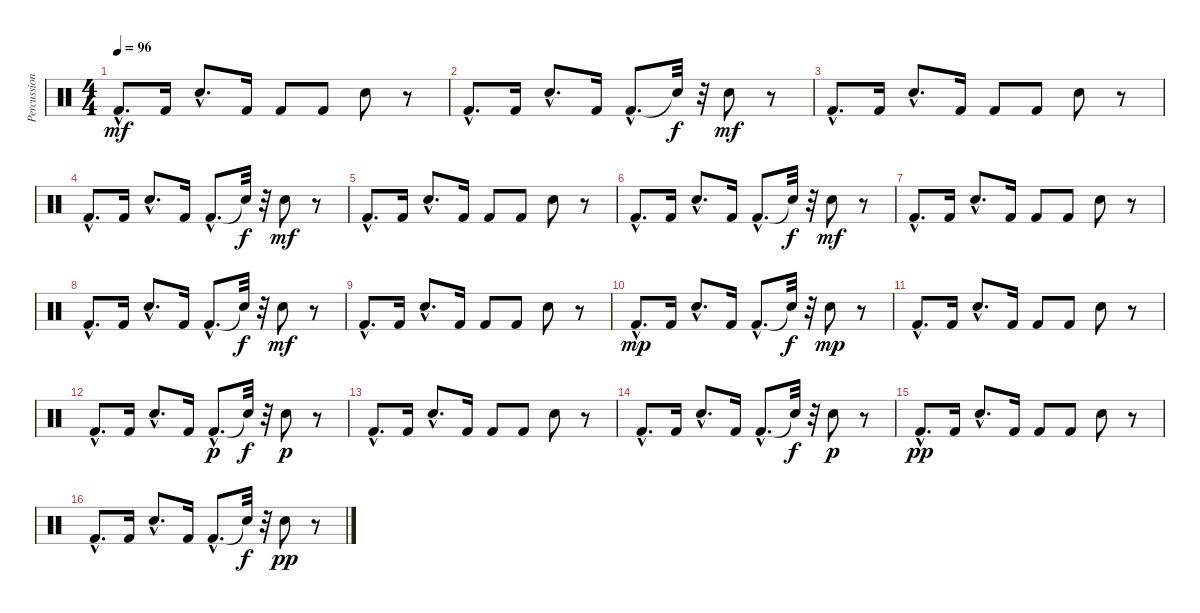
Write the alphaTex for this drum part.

\track ("Percussion" "Percussion") {instrument percussion}
\staff {score}
\articulation defaults
\ts (4 4)
\tempo 96
\clef neutral
\ks c "Kick (hit) 2"{hac}.8{d dy mf} "Kick (hit) 2".16 "Electric Snare (hit)"{hac}.8{d} "Kick (hit) 2".16 "Kick (hit) 2".8 "Kick (hit) 2".8 "Electric Snare (hit)".8
r.8 |
"Kick (hit) 2"{hac}.8{d} "Kick (hit) 2".16 "Electric Snare (hit)"{hac}.8{d} "Kick (hit) 2".16 "Kick (hit) 2"{hac}.8{d} "Snare (hit)"{t}.32{dy f} r.32 "Electric Snare (hit)".8{dy mf} r.8 |
"Kick (hit) 2"{hac}.8{d} "Kick (hit) 2".16 "Electric Snare (hit)"{hac}.8{d} "Kick (hit) 2".16 "Kick (hit) 2".8 "Kick (hit) 2".8 "Electric Snare (hit)".8 r.8 |
"Kick (hit) 2"{hac}.8{d} "Kick (hit) 2".16 "Electric Snare (hit)"{hac}.8{d} "Kick (hit) 2".16 "Kick (hit) 2"{hac}.8{d} "Snare (hit)"{t}.32{dy f} r.32 "Electric Snare (hit)".8{dy mf} r.8 |
"Kick (hit) 2"{hac}.8{d} "Kick (hit) 2".16 "Electric Snare (hit)"{hac}.8{d} "Kick (hit) 2".16 "Kick (hit) 2".8 "Kick (hit) 2".8 "Electric Snare (hit)".8 r.8 |
"Kick (hit) 2"{hac}.8{d} "Kick (hit) 2".16 "Electric Snare (hit)"{hac}.8{d} "Kick (hit) 2".16 "Kick (hit) 2"{hac}.8{d} "Snare (hit)"{t}.32{dy f} r.32 "Electric Snare (hit)".8{dy mf} r.8 |
"Kick (hit) 2"{hac}.8{d} "Kick (hit) 2".16 "Electric Snare (hit)"{hac}.8{d} "Kick (hit) 2".16 "Kick (hit) 2".8 "Kick (hit) 2".8 "Electric Snare (hit)".8 r.8 |
"Kick (hit) 2"{hac}.8{d} "Kick (hit) 2".16 "Electric Snare (hit)"{hac}.8{d} "Kick (hit) 2".16 "Kick (hit) 2"{hac}.8{d} "Snare (hit)"{t}.32{dy f} r.32 "Electric Snare (hit)".8{dy mf} r.8 |
"Kick (hit) 2"{hac}.8{d} "Kick (hit) 2".16 "Electric Snare (hit)"{hac}.8{d} "Kick (hit) 2".16 "Kick (hit) 2".8 "Kick (hit) 2".8 "Electric Snare (hit)".8 r.8 |
"Kick (hit) 2"{hac}.8{d dy mp} "Kick (hit) 2".16 "Electric Snare (hit)"{hac}.8{d} "Kick (hit) 2".16 "Kick (hit) 2"{hac}.8{d} "Snare (hit)"{t}.32{dy f} r.32 "Electric Snare (hit)".8{dy mp} r.8 |
"Kick (hit) 2"{hac}.8{d} "Kick (hit) 2".16 "Electric Snare (hit)"{hac}.8{d} "Kick (hit) 2".16 "Kick (hit) 2".8 "Kick (hit) 2".8 "Electric Snare (hit)".8 r.8 |
"Kick (hit) 2"{hac}.8{d} "Kick (hit) 2".16 "Electric Snare (hit)"{hac}.8{d} "Kick (hit) 2".16 "Kick (hit) 2"{hac}.8{d dy p} "Snare (hit)"{t}.32{dy f} r.32 "Electric Snare (hit)".8{dy p} r.8 |
"Kick (hit) 2"{hac}.8{d} "Kick (hit) 2".16 "Electric Snare (hit)"{hac}.8{d} "Kick (hit) 2".16 "Kick (hit) 2".8 "Kick (hit) 2".8 "Electric Snare (hit)".8 r.8 |
"Kick (hit) 2"{hac}.8{d} "Kick (hit) 2".16 "Electric Snare (hit)"{hac}.8{d} "Kick (hit) 2".16 "Kick (hit) 2"{hac}.8{d} "Snare (hit)"{t}.32{dy f} r.32 "Electric Snare (hit)".8{dy p} r.8 |
"Kick (hit) 2"{hac}.8{d dy pp} "Kick (hit) 2".16 "Electric Snare (hit)"{hac}.8{d} "Kick (hit) 2".16 "Kick (hit) 2".8 "Kick (hit) 2".8 "Electric Snare (hit)".8 r.8 |
"Kick (hit) 2"{hac}.8{d} "Kick (hit) 2".16 "Electric Snare (hit)"{hac}.8{d} "Kick (hit) 2".16 "Kick (hit) 2"{hac}.8{d} "Snare (hit)"{t}.32{dy f} r.32 "Electric Snare (hit)".8{dy pp} r.8
